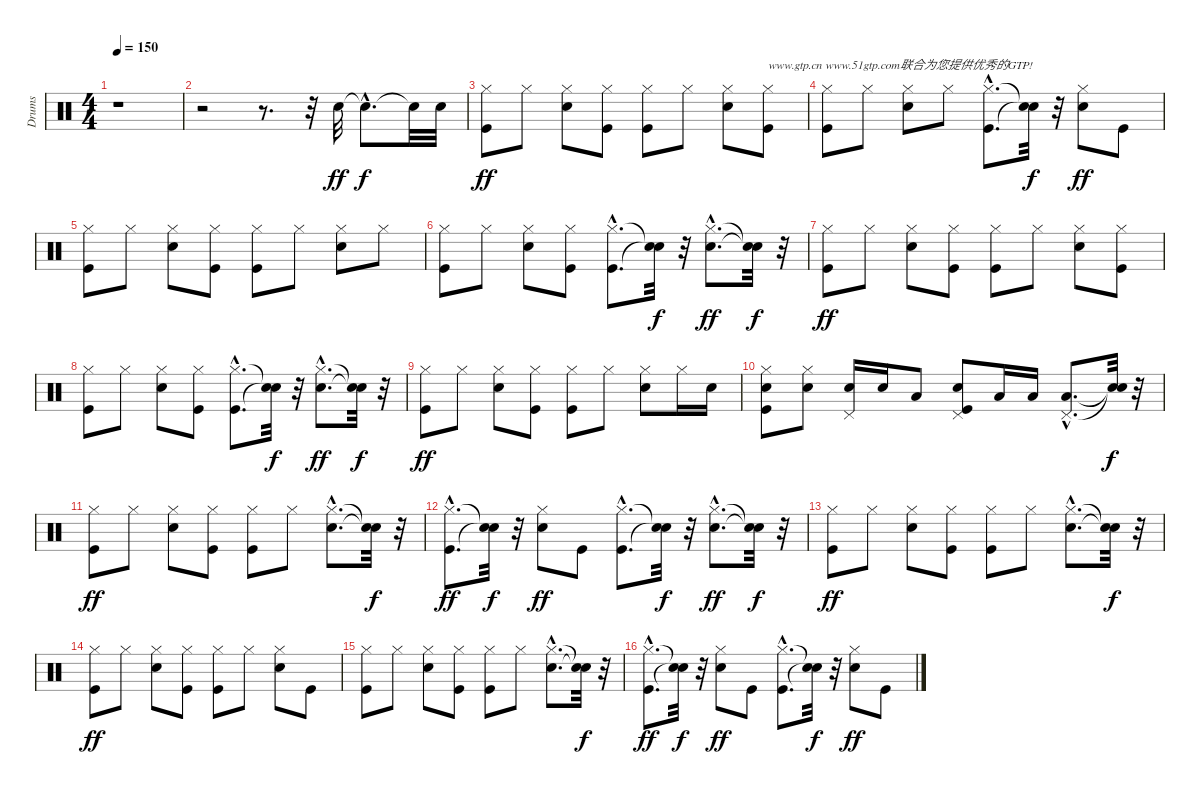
\track ("Drums" "Drums") {instrument percussion}
\staff {score}
\articulation defaults
\ts (4 4)
\tempo 150
\clef neutral
\ks c
r.1{dy ff} |
r.2 r.8{d} r.32 "Snare (hit) 2".32 "Snare (hit)"{hac t}.8{d dy f} "Snare (hit) 2"{t}.32 "Snare (hit) 2".32 |
("Kick (hit)" "Hi-Hat (closed)").8{dy ff} "Hi-Hat (closed)".8 ("Snare (hit) 2" "Hi-Hat (closed)").8 ("Kick (hit)" "Hi-Hat (closed)").8 ("Kick (hit)" "Hi-Hat (closed)").8 "Hi-Hat (closed)".8 ("Snare (hit) 2" "Hi-Hat (closed)").8 ("Kick (hit)" "Hi-Hat (closed)").8{txt "www.gtp.cn www.51gtp.com联合为您提供优秀的GTP!"} |
("Kick (hit)" "Hi-Hat (closed)").8 "Hi-Hat (closed)".8 ("Snare (hit) 2" "Hi-Hat (closed)").8 "Hi-Hat (closed)".8 ("Kick (hit)"{hac} "Hi-Hat (closed)"{hac}).8{d} ("Snare (hit)"{t} "Snare (hit)"{t}).32{dy f} r.32 ("Snare (hit) 2" "Hi-Hat (closed)").8{dy ff} "Kick (hit)".8 |
("Kick (hit)" "Hi-Hat (closed)").8 "Hi-Hat (closed)".8 ("Snare (hit) 2" "Hi-Hat (closed)").8 ("Kick (hit)" "Hi-Hat (closed)").8 ("Kick (hit)" "Hi-Hat (closed)").8 "Hi-Hat (closed)".8 ("Snare (hit) 2" "Hi-Hat (closed)").8 "Hi-Hat (closed)".8 |
("Kick (hit)" "Hi-Hat (closed)").8 "Hi-Hat (closed)".8 ("Snare (hit) 2" "Hi-Hat (closed)").8 ("Kick (hit)" "Hi-Hat (closed)").8 ("Kick (hit)"{hac} "Hi-Hat (closed)"{hac}).8{d} ("Snare (hit)"{t} "Snare (hit)"{t}).32{dy f} r.32 ("Snare (hit) 2"{hac} "Hi-Hat (closed)"{hac}).8{d dy ff} ("Snare (hit)"{t} "Snare (hit)"{t}).32{dy f} r.32 |
("Kick (hit)" "Hi-Hat (closed)").8{dy ff} "Hi-Hat (closed)".8 ("Snare (hit) 2" "Hi-Hat (closed)").8 ("Kick (hit)" "Hi-Hat (closed)").8 ("Kick (hit)" "Hi-Hat (closed)").8 "Hi-Hat (closed)".8 ("Snare (hit) 2" "Hi-Hat (closed)").8 ("Kick (hit)" "Hi-Hat (closed)").8 |
("Kick (hit)" "Hi-Hat (closed)").8 "Hi-Hat (closed)".8 ("Snare (hit) 2" "Hi-Hat (closed)").8 ("Kick (hit)" "Hi-Hat (closed)").8 ("Kick (hit)"{hac} "Hi-Hat (closed)"{hac}).8{d} ("Snare (hit)"{t} "Snare (hit)"{t}).32{dy f} r.32 ("Snare (hit) 2"{hac} "Hi-Hat (closed)"{hac}).8{d dy ff} ("Snare (hit)"{t} "Snare (hit)"{t}).32{dy f} r.32 |
("Kick (hit)" "Hi-Hat (closed)").8{dy ff} "Hi-Hat (closed)".8 ("Snare (hit) 2" "Hi-Hat (closed)").8 ("Kick (hit)" "Hi-Hat (closed)").8 ("Kick (hit)" "Hi-Hat (closed)").8 "Hi-Hat (closed)".8 ("Snare (hit) 2" "Hi-Hat (closed)").8 "Hi-Hat (closed)".16 "Snare (hit) 2".16 |
("Kick (hit)" "Snare (hit) 2" "Hi-Hat (closed)").8 ("Snare (hit) 2" "Hi-Hat (closed)").8 ("Snare (hit) 2" "Pedal Hi-Hat (hit)").16 "Snare (hit) 2".16 "Low Floor Tom (hit)".8 ("Kick (hit)" "Snare (hit) 2" "Pedal Hi-Hat (hit)").8 "Low Tom (hit)".16 "Low Tom (hit)".16 ("Low Floor Tom (hit)"{hac} "Pedal Hi-Hat (hit)"{hac}).8{d} ("Snare (hit)"{t} "Snare (hit)"{t}).32{dy f} r.32 |
("Kick (hit)" "Hi-Hat (closed)").8{dy ff} "Hi-Hat (closed)".8 ("Snare (hit) 2" "Hi-Hat (closed)").8 ("Kick (hit)" "Hi-Hat (closed)").8 ("Kick (hit)" "Hi-Hat (closed)").8 "Hi-Hat (closed)".8 ("Snare (hit) 2"{hac} "Hi-Hat (closed)"{hac}).8{d} ("Snare (hit)"{t} "Snare (hit)"{t}).32{dy f} r.32 |
("Kick (hit)"{hac} "Hi-Hat (closed)"{hac}).8{d dy ff} ("Snare (hit)"{t} "Snare (hit)"{t}).32{dy f} r.32 ("Snare (hit) 2" "Hi-Hat (closed)").8{dy ff} "Kick (hit)".8 ("Kick (hit)"{hac} "Hi-Hat (closed)"{hac}).8{d} ("Snare (hit)"{t} "Snare (hit)"{t}).32{dy f} r.32 ("Snare (hit) 2"{hac} "Hi-Hat (closed)"{hac}).8{d dy ff} ("Snare (hit)"{t} "Snare (hit)"{t}).32{dy f} r.32 |
("Kick (hit)" "Hi-Hat (closed)").8{dy ff} "Hi-Hat (closed)".8 ("Snare (hit) 2" "Hi-Hat (closed)").8 ("Kick (hit)" "Hi-Hat (closed)").8 ("Kick (hit)" "Hi-Hat (closed)").8 "Hi-Hat (closed)".8 ("Snare (hit) 2"{hac} "Hi-Hat (closed)"{hac}).8{d} ("Snare (hit)"{t} "Snare (hit)"{t}).32{dy f} r.32 |
("Kick (hit)" "Hi-Hat (closed)").8{dy ff} "Hi-Hat (closed)".8 ("Snare (hit) 2" "Hi-Hat (closed)").8 ("Kick (hit)" "Hi-Hat (closed)").8 ("Kick (hit)" "Hi-Hat (closed)").8 "Hi-Hat (closed)".8 ("Snare (hit) 2" "Hi-Hat (closed)").8 "Kick (hit)".8 |
("Kick (hit)" "Hi-Hat (closed)").8 "Hi-Hat (closed)".8 ("Snare (hit) 2" "Hi-Hat (closed)").8 ("Kick (hit)" "Hi-Hat (closed)").8 ("Kick (hit)" "Hi-Hat (closed)").8 "Hi-Hat (closed)".8 ("Snare (hit) 2"{hac} "Hi-Hat (closed)"{hac}).8{d} ("Snare (hit)"{t} "Snare (hit)"{t}).32{dy f} r.32 |
("Kick (hit)"{hac} "Hi-Hat (closed)"{hac}).8{d dy ff} ("Snare (hit)"{t} "Snare (hit)"{t}).32{dy f} r.32 ("Snare (hit) 2" "Hi-Hat (closed)").8{dy ff} "Kick (hit)".8 ("Kick (hit)"{hac} "Hi-Hat (closed)"{hac}).8{d} ("Snare (hit)"{t} "Snare (hit)"{t}).32{dy f} r.32 ("Snare (hit) 2" "Hi-Hat (closed)").8{dy ff} "Kick (hit)".8
